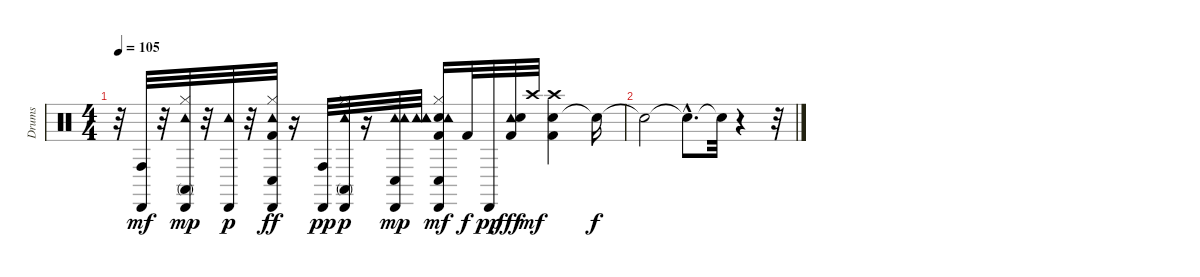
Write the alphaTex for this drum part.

\track ("Drums" "Drums") {instrument percussion}
\staff {score}
\articulation defaults
\ts (4 4)
\tempo 105
\clef neutral
\ks c
r.32{dy mp} ("Cabasa (hit)" "Conga high (hit)").32{dy mf} r.32 ("Hi-Hat (closed)" "Tambourine (hit)" "Cabasa (hit)" "Conga high (mute)").32{dy mp} r.32 ("Tambourine (hit)" "Cabasa (hit)").32{dy p} r.32 ("Conga low (hit)" "Cabasa (hit)" "Tambourine (hit)" "Hi-Hat (closed)" "Kick (hit) 2").32{dy ff} r.16 ("Conga high (hit)" "Cabasa (hit)").32{dy pp} ("Conga high (mute)" "Cabasa (hit)" "Hi-Hat (closed)" "Tambourine (hit)").32{dy p} r.16 ("Tambourine (hit)" "Cabasa (hit)" "Conga low (hit)" "Tambourine (hit)").32{dy mp} ("Tambourine (hit)" "Tambourine (hit)" "Tambourine (hit)").32 ("Conga low (hit)" "Hi-Hat (closed)" "Snare (hit) 2" "Kick (hit) 2" "Cabasa (hit)" "Tambourine (hit)").16{dy mf} "Kick (hit) 2".32{dy f} "Cabasa (hit)".32{dy pp} ("Tambourine (hit)" "Kick (hit) 2" "Snare (hit) 2").32{dy fff} "Crash high (hit)".32{dy mf} ("Snare (hit) 2" "Kick (hit) 2" "Crash high (hit)").4 "Snare (hit)"{t}.16{dy f} |
"Snare (hit)"{t}.2 "Snare (hit)"{hac t}.8{d} "Snare (hit)"{t}.32 r.4 r.32
